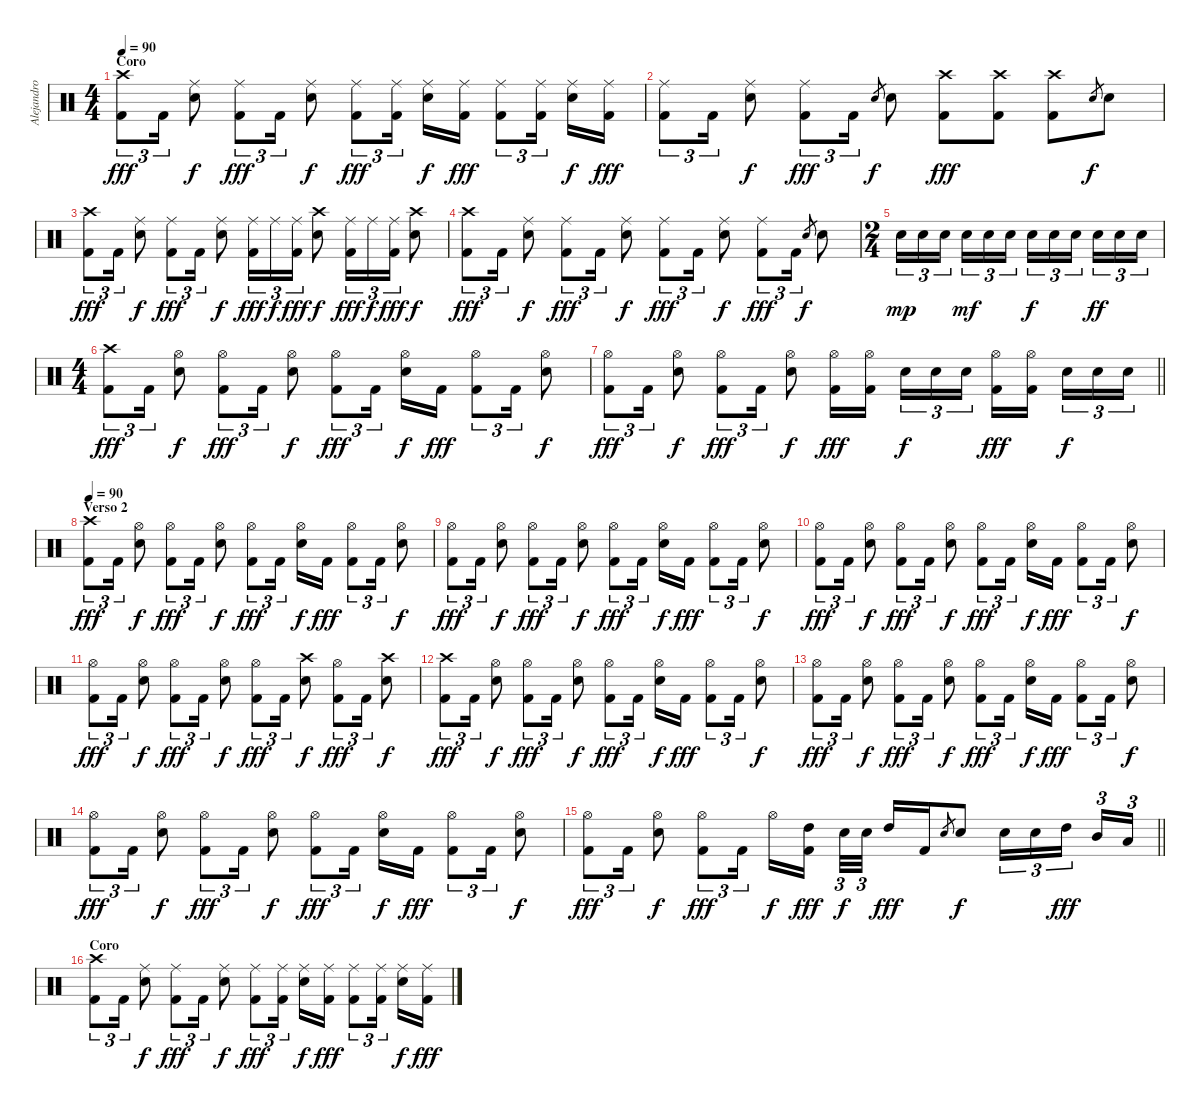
\track ("Alejandro Gutiérrez" "Alejandro ") {instrument percussion}
\staff {score}
\articulation defaults
\ts (4 4)
\section ("" "Coro")
\tempo 90
\clef neutral
\ks c
("Crash high (hit)" "Kick (hit) 2").8{tu (3 2) dy fff} "Kick (hit) 2".16{tu (3 2)} ("Ride (middle)" "Electric Snare (hit)").8{dy f} ("Ride (middle)" "Kick (hit) 2").8{tu (3 2) dy fff} "Kick (hit) 2".16{tu (3 2)} ("Ride (middle)" "Electric Snare (hit)").8{dy f} ("Ride (middle)" "Kick (hit) 2").8{tu (3 2) dy fff} ("Ride (middle)" "Kick (hit) 2").16{tu (3 2) beam splitsecondary} ("Ride (middle)" "Electric Snare (hit)").16{dy f} ("Ride (middle)" "Kick (hit) 2").16{dy fff} ("Ride (middle)" "Kick (hit) 2").8{tu (3 2)} ("Ride (middle)" "Kick (hit) 2").16{tu (3 2) beam splitsecondary} ("Ride (middle)" "Electric Snare (hit)").16{dy f} ("Ride (middle)" "Kick (hit) 2").16{dy fff} |
("Ride (middle)" "Kick (hit) 2").8{tu (3 2)} "Kick (hit) 2".16{tu (3 2)} ("Ride (middle)" "Electric Snare (hit)").8{dy f} ("Ride (middle)" "Kick (hit) 2").8{tu (3 2) dy fff} "Kick (hit) 2".16{tu (3 2)} "Electric Snare (hit)".8{gr dy f} "Electric Snare (hit)".8 ("Crash high (hit)" "Kick (hit) 2").8{dy fff} ("Crash high (hit)" "Kick (hit) 2").8 ("Crash high (hit)" "Kick (hit) 2").8 "Electric Snare (hit)".8{gr dy f} "Electric Snare (hit)".8 |
("Crash high (hit)" "Kick (hit) 2").8{tu (3 2) dy fff} "Kick (hit) 2".16{tu (3 2)} ("Ride (middle)" "Electric Snare (hit)").8{dy f} ("Ride (middle)" "Kick (hit) 2").8{tu (3 2) dy fff} "Kick (hit) 2".16{tu (3 2)} ("Ride (middle)" "Electric Snare (hit)").8{dy f} ("Ride (middle)" "Kick (hit) 2").16{tu (3 2) dy fff} "Ride (middle)".16{tu (3 2) dy f} ("Ride (middle)" "Kick (hit) 2").16{tu (3 2) dy fff} ("Crash high (hit)" "Electric Snare (hit)").8{dy f} ("Ride (middle)" "Kick (hit) 2").16{tu (3 2) dy fff} "Ride (middle)".16{tu (3 2) dy f} ("Ride (middle)" "Kick (hit) 2").16{tu (3 2) dy fff} ("Crash high (hit)" "Electric Snare (hit)").8{dy f} |
("Crash high (hit)" "Kick (hit) 2").8{tu (3 2) dy fff} "Kick (hit) 2".16{tu (3 2)} ("Ride (middle)" "Electric Snare (hit)").8{dy f} ("Ride (middle)" "Kick (hit) 2").8{tu (3 2) dy fff} "Kick (hit) 2".16{tu (3 2)} ("Ride (middle)" "Electric Snare (hit)").8{dy f} ("Ride (middle)" "Kick (hit) 2").8{tu (3 2) dy fff} "Kick (hit) 2".16{tu (3 2)} ("Ride (middle)" "Electric Snare (hit)").8{dy f} ("Ride (middle)" "Kick (hit) 2").8{tu (3 2) dy fff} "Kick (hit) 2".16{tu (3 2)} "Electric Snare (hit)".8{gr dy f} "Electric Snare (hit)".8 |
\ts (2 4)
"Electric Snare (hit)".16{tu (3 2) dy mp} "Electric Snare (hit)".16{tu (3 2)} "Electric Snare (hit)".16{tu (3 2) beam splitsecondary} "Electric Snare (hit)".16{tu (3 2) dy mf} "Electric Snare (hit)".16{tu (3 2)} "Electric Snare (hit)".16{tu (3 2)} "Electric Snare (hit)".16{tu (3 2) dy f} "Electric Snare (hit)".16{tu (3 2)} "Electric Snare (hit)".16{tu (3 2) beam splitsecondary} "Electric Snare (hit)".16{tu (3 2) dy ff} "Electric Snare (hit)".16{tu (3 2)} "Electric Snare (hit)".16{tu (3 2)} |
\ts (4 4)
("Crash high (hit)" "Kick (hit) 2").8{tu (3 2) dy fff} "Kick (hit) 2".16{tu (3 2)} ("Hi-Hat (open)" "Electric Snare (hit)").8{dy f} ("Hi-Hat (open)" "Kick (hit) 2").8{tu (3 2) dy fff} "Kick (hit) 2".16{tu (3 2)} ("Hi-Hat (open)" "Electric Snare (hit)").8{dy f} ("Hi-Hat (open)" "Kick (hit) 2").8{tu (3 2) dy fff} "Kick (hit) 2".16{tu (3 2) beam splitsecondary} ("Hi-Hat (open)" "Electric Snare (hit)").16{dy f} "Kick (hit) 2".16{dy fff} ("Hi-Hat (open)" "Kick (hit) 2").8{tu (3 2)} "Kick (hit) 2".16{tu (3 2)} ("Hi-Hat (open)" "Electric Snare (hit)").8{dy f} |
\barLineRight lightlight
("Hi-Hat (open)" "Kick (hit) 2").8{tu (3 2) dy fff} "Kick (hit) 2".16{tu (3 2)} ("Hi-Hat (open)" "Electric Snare (hit)").8{dy f} ("Hi-Hat (open)" "Kick (hit) 2").8{tu (3 2) dy fff} "Kick (hit) 2".16{tu (3 2)} ("Hi-Hat (open)" "Electric Snare (hit)").8{dy f} ("Hi-Hat (open)" "Kick (hit) 2").16{dy fff} ("Hi-Hat (open)" "Kick (hit) 2").16{beam splitsecondary} "Electric Snare (hit)".16{tu (3 2) dy f} "Electric Snare (hit)".16{tu (3 2)} "Electric Snare (hit)".16{tu (3 2)} ("Hi-Hat (open)" "Kick (hit) 2").16{dy fff} ("Hi-Hat (open)" "Kick (hit) 2").16{beam splitsecondary} "Electric Snare (hit)".16{tu (3 2) dy f} "Electric Snare (hit)".16{tu (3 2)} "Electric Snare (hit)".16{tu (3 2)} |
\section ("" "Verso 2")
\tempo 90
("Crash high (hit)" "Kick (hit) 2").8{tu (3 2) dy fff} "Kick (hit) 2".16{tu (3 2)} ("Hi-Hat (open)" "Electric Snare (hit)").8{dy f} ("Hi-Hat (open)" "Kick (hit) 2").8{tu (3 2) dy fff} "Kick (hit) 2".16{tu (3 2)} ("Hi-Hat (open)" "Electric Snare (hit)").8{dy f} ("Hi-Hat (open)" "Kick (hit) 2").8{tu (3 2) dy fff} "Kick (hit) 2".16{tu (3 2) beam splitsecondary} ("Hi-Hat (open)" "Electric Snare (hit)").16{dy f} "Kick (hit) 2".16{dy fff} ("Hi-Hat (open)" "Kick (hit) 2").8{tu (3 2)} "Kick (hit) 2".16{tu (3 2)} ("Hi-Hat (open)" "Electric Snare (hit)").8{dy f} |
("Hi-Hat (open)" "Kick (hit) 2").8{tu (3 2) dy fff} "Kick (hit) 2".16{tu (3 2)} ("Hi-Hat (open)" "Electric Snare (hit)").8{dy f} ("Hi-Hat (open)" "Kick (hit) 2").8{tu (3 2) dy fff} "Kick (hit) 2".16{tu (3 2)} ("Hi-Hat (open)" "Electric Snare (hit)").8{dy f} ("Hi-Hat (open)" "Kick (hit) 2").8{tu (3 2) dy fff} "Kick (hit) 2".16{tu (3 2) beam splitsecondary} ("Hi-Hat (open)" "Electric Snare (hit)").16{dy f} "Kick (hit) 2".16{dy fff} ("Hi-Hat (open)" "Kick (hit) 2").8{tu (3 2)} "Kick (hit) 2".16{tu (3 2)} ("Hi-Hat (open)" "Electric Snare (hit)").8{dy f} |
("Hi-Hat (open)" "Kick (hit) 2").8{tu (3 2) dy fff} "Kick (hit) 2".16{tu (3 2)} ("Hi-Hat (open)" "Electric Snare (hit)").8{dy f} ("Hi-Hat (open)" "Kick (hit) 2").8{tu (3 2) dy fff} "Kick (hit) 2".16{tu (3 2)} ("Hi-Hat (open)" "Electric Snare (hit)").8{dy f} ("Hi-Hat (open)" "Kick (hit) 2").8{tu (3 2) dy fff} "Kick (hit) 2".16{tu (3 2) beam splitsecondary} ("Hi-Hat (open)" "Electric Snare (hit)").16{dy f} "Kick (hit) 2".16{dy fff} ("Hi-Hat (open)" "Kick (hit) 2").8{tu (3 2)} "Kick (hit) 2".16{tu (3 2)} ("Hi-Hat (open)" "Electric Snare (hit)").8{dy f} |
("Hi-Hat (open)" "Kick (hit) 2").8{tu (3 2) dy fff} "Kick (hit) 2".16{tu (3 2)} ("Hi-Hat (open)" "Electric Snare (hit)").8{dy f} ("Hi-Hat (open)" "Kick (hit) 2").8{tu (3 2) dy fff} "Kick (hit) 2".16{tu (3 2)} ("Hi-Hat (open)" "Electric Snare (hit)").8{dy f} ("Hi-Hat (open)" "Kick (hit) 2").8{tu (3 2) dy fff} "Kick (hit) 2".16{tu (3 2)} ("Crash high (hit)" "Electric Snare (hit)").8{dy f} ("Hi-Hat (open)" "Kick (hit) 2").8{tu (3 2) dy fff} "Kick (hit) 2".16{tu (3 2)} ("Crash high (hit)" "Electric Snare (hit)").8{dy f} |
("Crash high (hit)" "Kick (hit) 2").8{tu (3 2) dy fff} "Kick (hit) 2".16{tu (3 2)} ("Hi-Hat (open)" "Electric Snare (hit)").8{dy f} ("Hi-Hat (open)" "Kick (hit) 2").8{tu (3 2) dy fff} "Kick (hit) 2".16{tu (3 2)} ("Hi-Hat (open)" "Electric Snare (hit)").8{dy f} ("Hi-Hat (open)" "Kick (hit) 2").8{tu (3 2) dy fff} "Kick (hit) 2".16{tu (3 2) beam splitsecondary} ("Hi-Hat (open)" "Electric Snare (hit)").16{dy f} "Kick (hit) 2".16{dy fff} ("Hi-Hat (open)" "Kick (hit) 2").8{tu (3 2)} "Kick (hit) 2".16{tu (3 2)} ("Hi-Hat (open)" "Electric Snare (hit)").8{dy f} |
("Hi-Hat (open)" "Kick (hit) 2").8{tu (3 2) dy fff} "Kick (hit) 2".16{tu (3 2)} ("Hi-Hat (open)" "Electric Snare (hit)").8{dy f} ("Hi-Hat (open)" "Kick (hit) 2").8{tu (3 2) dy fff} "Kick (hit) 2".16{tu (3 2)} ("Hi-Hat (open)" "Electric Snare (hit)").8{dy f} ("Hi-Hat (open)" "Kick (hit) 2").8{tu (3 2) dy fff} "Kick (hit) 2".16{tu (3 2) beam splitsecondary} ("Hi-Hat (open)" "Electric Snare (hit)").16{dy f} "Kick (hit) 2".16{dy fff} ("Hi-Hat (open)" "Kick (hit) 2").8{tu (3 2)} "Kick (hit) 2".16{tu (3 2)} ("Hi-Hat (open)" "Electric Snare (hit)").8{dy f} |
("Hi-Hat (open)" "Kick (hit) 2").8{tu (3 2) dy fff} "Kick (hit) 2".16{tu (3 2)} ("Hi-Hat (open)" "Electric Snare (hit)").8{dy f} ("Hi-Hat (open)" "Kick (hit) 2").8{tu (3 2) dy fff} "Kick (hit) 2".16{tu (3 2)} ("Hi-Hat (open)" "Electric Snare (hit)").8{dy f} ("Hi-Hat (open)" "Kick (hit) 2").8{tu (3 2) dy fff} "Kick (hit) 2".16{tu (3 2) beam splitsecondary} ("Hi-Hat (open)" "Electric Snare (hit)").16{dy f} "Kick (hit) 2".16{dy fff} ("Hi-Hat (open)" "Kick (hit) 2").8{tu (3 2)} "Kick (hit) 2".16{tu (3 2)} ("Hi-Hat (open)" "Electric Snare (hit)").8{dy f} |
\barLineRight lightlight
("Hi-Hat (open)" "Kick (hit) 2").8{tu (3 2) dy fff} "Kick (hit) 2".16{tu (3 2)} ("Hi-Hat (open)" "Electric Snare (hit)").8{dy f} ("Hi-Hat (open)" "Kick (hit) 2").8{tu (3 2) dy fff} "Kick (hit) 2".16{tu (3 2) beam splitsecondary} "Hi-Hat (open)".16{dy f} ("High Tom (hit)" "Kick (hit) 2").16{dy fff} "Electric Snare (hit)".32{tu (3 2) dy f} "Electric Snare (hit)".32{tu (3 2) beam splitsecondary} "High Tom (hit)".16{dy fff} "Kick (hit) 2".16 "Electric Snare (hit)".8{gr} "Electric Snare (hit)".8{dy f} "Electric Snare (hit)".16{tu (3 2)} "Electric Snare (hit)".16{tu (3 2)} "High Tom (hit)".16{tu (3 2) dy fff beam splitsecondary} "Mid Tom (hit)".16{tu (3 2)} "Low Tom (hit)".16{tu (3 2)} |
\section ("" "Coro")
("Crash high (hit)" "Kick (hit) 2").8{tu (3 2)} "Kick (hit) 2".16{tu (3 2)} ("Ride (middle)" "Electric Snare (hit)").8{dy f} ("Ride (middle)" "Kick (hit) 2").8{tu (3 2) dy fff} "Kick (hit) 2".16{tu (3 2)} ("Ride (middle)" "Electric Snare (hit)").8{dy f} ("Ride (middle)" "Kick (hit) 2").8{tu (3 2) dy fff} ("Ride (middle)" "Kick (hit) 2").16{tu (3 2) beam splitsecondary} ("Ride (middle)" "Electric Snare (hit)").16{dy f} ("Ride (middle)" "Kick (hit) 2").16{dy fff} ("Ride (middle)" "Kick (hit) 2").8{tu (3 2)} ("Ride (middle)" "Kick (hit) 2").16{tu (3 2) beam splitsecondary} ("Ride (middle)" "Electric Snare (hit)").16{dy f} ("Ride (middle)" "Kick (hit) 2").16{dy fff}
